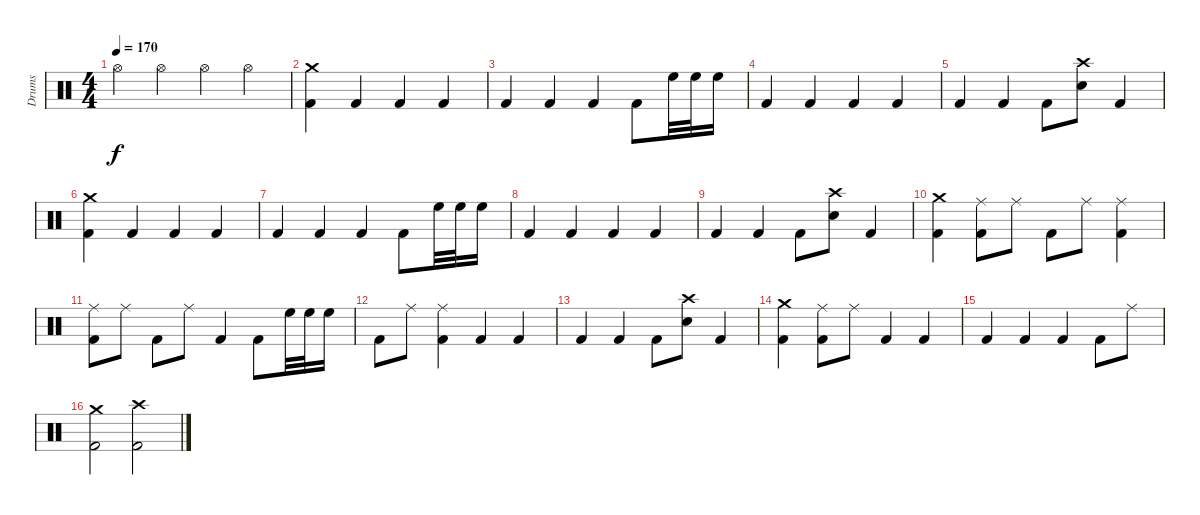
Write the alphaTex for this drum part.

\track ("Drums" "Drums") {instrument percussion}
\staff {score}
\articulation defaults
\ts (4 4)
\tempo 170
\clef neutral
\ks c "Hi-Hat (open)".4{dy f} "Hi-Hat (open)".4 "Hi-Hat (open)".4 "Hi-Hat (open)".4
|
("Crash medium (hit)" "Kick (hit) 2").4 "Kick (hit) 2".4 "Kick (hit) 2".4 "Kick (hit) 2".4 |
"Kick (hit) 2".4 "Kick (hit) 2".4 "Kick (hit) 2".4 "Kick (hit) 2".8 "High Floor Tom (hit)".32 "High Floor Tom (hit)".32 "High Floor Tom (hit)".16 |
"Kick (hit) 2".4 "Kick (hit) 2".4 "Kick (hit) 2".4 "Kick (hit) 2".4 |
"Kick (hit) 2".4 "Kick (hit) 2".4 "Kick (hit) 2".8 ("Crash high (hit)" "Electric Snare (hit)").8 "Kick (hit) 2".4 |
("Crash medium (hit)" "Kick (hit) 2").4 "Kick (hit) 2".4 "Kick (hit) 2".4 "Kick (hit) 2".4 |
"Kick (hit) 2".4 "Kick (hit) 2".4 "Kick (hit) 2".4 "Kick (hit) 2".8 "High Floor Tom (hit)".32 "High Floor Tom (hit)".32 "High Floor Tom (hit)".16 |
"Kick (hit) 2".4 "Kick (hit) 2".4 "Kick (hit) 2".4 "Kick (hit) 2".4 |
"Kick (hit) 2".4 "Kick (hit) 2".4 "Kick (hit) 2".8 ("Crash high (hit)" "Electric Snare (hit)").8 "Kick (hit) 2".4 |
("Crash medium (hit)" "Kick (hit) 2").4 ("Ride (middle)" "Kick (hit) 2").8 "Ride (middle)".8 "Kick (hit) 2".8 "Ride (middle)".8 ("Ride (middle)" "Kick (hit) 2").4 |
("Ride (middle)" "Kick (hit) 2").8 "Ride (middle)".8 "Kick (hit) 2".8 "Ride (middle)".8 "Kick (hit) 2".4 "Kick (hit) 2".8 "High Floor Tom (hit)".32 "High Floor Tom (hit)".32 "High Floor Tom (hit)".16 |
"Kick (hit) 2".8 "Ride (middle)".8 ("Ride (middle)" "Kick (hit) 2").4 "Kick (hit) 2".4 "Kick (hit) 2".4 |
"Kick (hit) 2".4 "Kick (hit) 2".4 "Kick (hit) 2".8 ("Crash high (hit)" "Electric Snare (hit)").8 "Kick (hit) 2".4 |
("Crash medium (hit)" "Kick (hit) 2").4 ("Ride (middle)" "Kick (hit) 2").8 "Ride (middle)".8 "Kick (hit) 2".4 "Kick (hit) 2".4 |
"Kick (hit) 2".4 "Kick (hit) 2".4 "Kick (hit) 2".4 "Kick (hit) 2".8 "Ride (middle)".8 |
("Crash medium (hit)" "Kick (hit) 2").2 ("Crash high (hit)" "Kick (hit) 2").2
